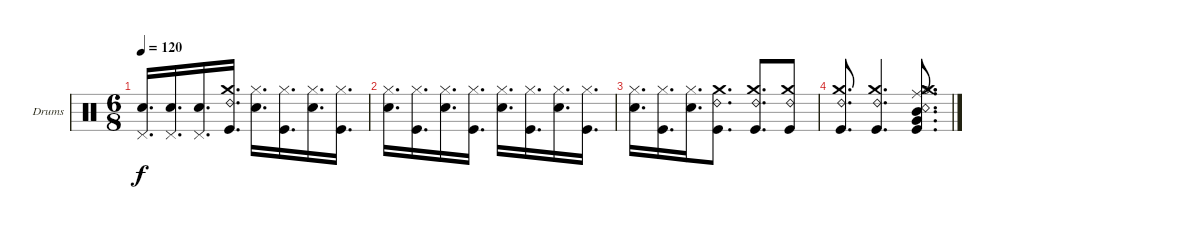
\defaultSystemsLayout 4
\bracketExtendMode groupsimilarinstruments
\firstSystemTrackNameOrientation horizontal
\otherSystemsTrackNameOrientation horizontal
\track ("Drumkit" "Drums") {instrument percussion}
\staff {score}
\articulation defaults
\ts (6 8)
\tempo 120
\clef neutral
\ks c
("Pedal Hi-Hat (hit)" "Snare (hit) 2").16{d dy f} ("Pedal Hi-Hat (hit)" "Snare (hit) 2").16{d} ("Pedal Hi-Hat (hit)" "Snare (hit) 2").16{d} ("Kick (hit)" "Crash medium (hit)" "Ride (bell) 2").16{d} ("Snare (hit) 2" "Hi-Hat (closed)").16{d} ("Kick (hit)" "Hi-Hat (closed)").16{d} ("Snare (hit) 2" "Hi-Hat (closed)").16{d} ("Kick (hit)" "Hi-Hat (closed)").16{d} |
("Snare (hit) 2" "Hi-Hat (closed)").16{d} ("Kick (hit)" "Hi-Hat (closed)").16{d} ("Snare (hit) 2" "Hi-Hat (closed)").16{d} ("Kick (hit)" "Hi-Hat (closed)").16{d} ("Snare (hit) 2" "Hi-Hat (closed)").16{d} ("Kick (hit)" "Hi-Hat (closed)").16{d} ("Snare (hit) 2" "Hi-Hat (closed)").16{d} ("Kick (hit)" "Hi-Hat (closed)").16{d} |
("Snare (hit) 2" "Hi-Hat (closed)").16{d} ("Kick (hit)" "Hi-Hat (closed)").16{d} ("Snare (hit) 2" "Hi-Hat (closed)").16{d} ("Kick (hit)" "Crash medium (hit)" "Ride (bell) 2").8{d} ("Kick (hit)" "Crash medium (hit)" "Ride (bell) 2").8{d} ("Kick (hit)" "Crash medium (hit)" "Ride (bell) 2").8 |
("Kick (hit)" "Crash medium (hit)" "Ride (bell) 2").8{d} ("Kick (hit)" "Crash medium (hit)" "Ride (bell) 2").4{d} ("Kick (hit)" "Crash medium (hit)" "Ride (middle)" "Snare (rim shot)" "Hi-Hat (open)" "Mid Tom (hit)" "Very Low Tom (hit)").8{d}
